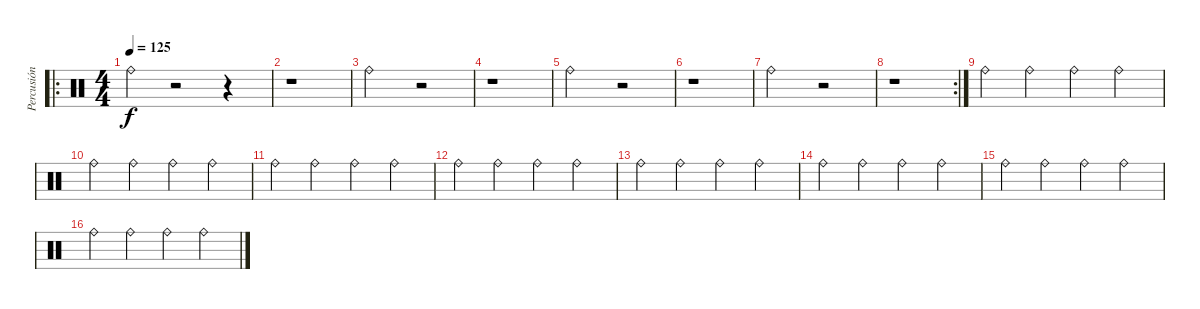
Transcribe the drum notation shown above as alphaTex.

\track ("Percusión" "Percusión") {instrument percussion}
\staff {score}
\articulation defaults
\ro
\ts (4 4)
\tempo 125
\clef neutral
\ks c "Ride (bell)".4{dy f}
r.2 r.4 |
r.1 |
"Ride (bell)".2 r.2 |
r.1 |
"Ride (bell)".2 r.2 |
r.1 |
"Ride (bell)".2 r.2 |
\rc 2
r.1 |
"Ride (bell)".4 "Ride (bell)".4 "Ride (bell)".4 "Ride (bell)".4 |
"Ride (bell)".4 "Ride (bell)".4 "Ride (bell)".4 "Ride (bell)".4 |
"Ride (bell)".4 "Ride (bell)".4 "Ride (bell)".4 "Ride (bell)".4 |
"Ride (bell)".4 "Ride (bell)".4 "Ride (bell)".4 "Ride (bell)".4 |
"Ride (bell)".4 "Ride (bell)".4 "Ride (bell)".4 "Ride (bell)".4 |
"Ride (bell)".4 "Ride (bell)".4 "Ride (bell)".4 "Ride (bell)".4 |
"Ride (bell)".4 "Ride (bell)".4 "Ride (bell)".4 "Ride (bell)".4 |
"Ride (bell)".4 "Ride (bell)".4 "Ride (bell)".4 "Ride (bell)".4
